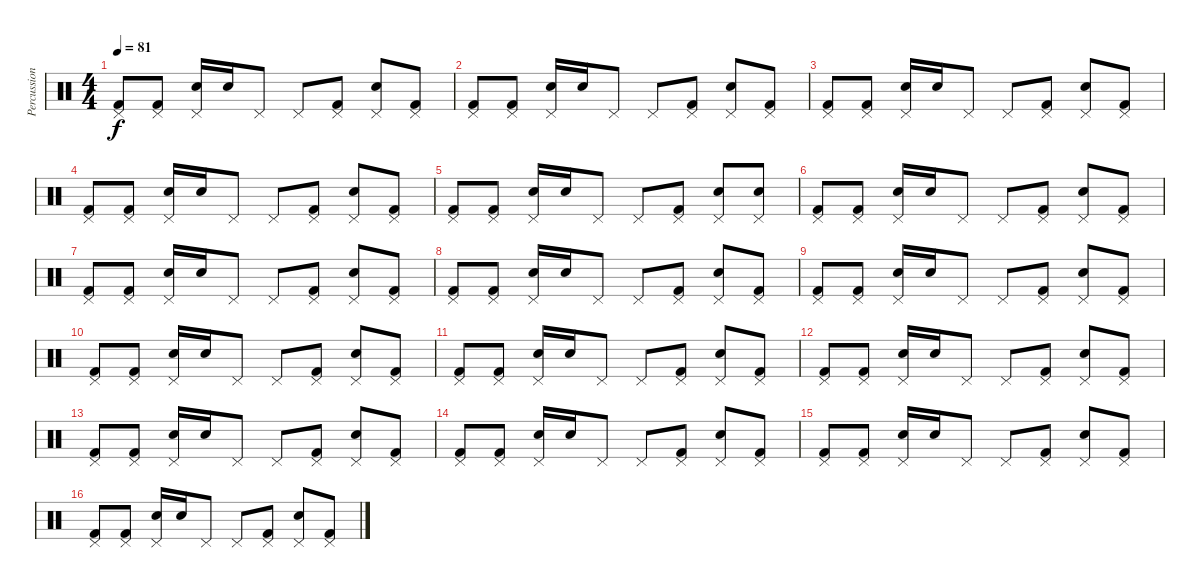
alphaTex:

\track ("Percussion" "Percussion") {instrument percussion}
\staff {score}
\articulation defaults
\ts (4 4)
\tempo 81
\clef neutral
\ks c
("Pedal Hi-Hat (hit)" "Kick (hit) 2").8{dy f} ("Pedal Hi-Hat (hit)" "Kick (hit) 2").8 ("Pedal Hi-Hat (hit)" "Snare (hit) 2").16 "Snare (hit) 2".16 "Pedal Hi-Hat (hit)".8 "Pedal Hi-Hat (hit)".8 ("Pedal Hi-Hat (hit)" "Kick (hit) 2").8 ("Pedal Hi-Hat (hit)" "Snare (hit) 2").8 ("Pedal Hi-Hat (hit)" "Kick (hit) 2").8 |
("Pedal Hi-Hat (hit)" "Kick (hit) 2").8 ("Pedal Hi-Hat (hit)" "Kick (hit) 2").8 ("Pedal Hi-Hat (hit)" "Snare (hit) 2").16 "Snare (hit) 2".16 "Pedal Hi-Hat (hit)".8 "Pedal Hi-Hat (hit)".8 ("Pedal Hi-Hat (hit)" "Kick (hit) 2").8 ("Pedal Hi-Hat (hit)" "Snare (hit) 2").8 ("Pedal Hi-Hat (hit)" "Kick (hit) 2").8 |
("Pedal Hi-Hat (hit)" "Kick (hit) 2").8 ("Pedal Hi-Hat (hit)" "Kick (hit) 2").8 ("Pedal Hi-Hat (hit)" "Snare (hit) 2").16 "Snare (hit) 2".16 "Pedal Hi-Hat (hit)".8 "Pedal Hi-Hat (hit)".8 ("Pedal Hi-Hat (hit)" "Kick (hit) 2").8 ("Pedal Hi-Hat (hit)" "Snare (hit) 2").8 ("Pedal Hi-Hat (hit)" "Kick (hit) 2").8 |
("Pedal Hi-Hat (hit)" "Kick (hit) 2").8 ("Pedal Hi-Hat (hit)" "Kick (hit) 2").8 ("Pedal Hi-Hat (hit)" "Snare (hit) 2").16 "Snare (hit) 2".16 "Pedal Hi-Hat (hit)".8 "Pedal Hi-Hat (hit)".8 ("Pedal Hi-Hat (hit)" "Kick (hit) 2").8 ("Pedal Hi-Hat (hit)" "Snare (hit) 2").8 ("Pedal Hi-Hat (hit)" "Kick (hit) 2").8 |
("Pedal Hi-Hat (hit)" "Kick (hit) 2").8 ("Pedal Hi-Hat (hit)" "Kick (hit) 2").8 ("Pedal Hi-Hat (hit)" "Snare (hit) 2").16 "Snare (hit) 2".16 "Pedal Hi-Hat (hit)".8 "Pedal Hi-Hat (hit)".8 ("Pedal Hi-Hat (hit)" "Kick (hit) 2").8 ("Pedal Hi-Hat (hit)" "Snare (hit) 2").8 ("Pedal Hi-Hat (hit)" "Snare (hit)").8 |
("Pedal Hi-Hat (hit)" "Kick (hit) 2").8 ("Pedal Hi-Hat (hit)" "Kick (hit) 2").8 ("Pedal Hi-Hat (hit)" "Snare (hit) 2").16 "Snare (hit) 2".16 "Pedal Hi-Hat (hit)".8 "Pedal Hi-Hat (hit)".8 ("Pedal Hi-Hat (hit)" "Kick (hit) 2").8 ("Pedal Hi-Hat (hit)" "Snare (hit) 2").8 ("Pedal Hi-Hat (hit)" "Kick (hit) 2").8 |
("Pedal Hi-Hat (hit)" "Kick (hit) 2").8 ("Pedal Hi-Hat (hit)" "Kick (hit) 2").8 ("Pedal Hi-Hat (hit)" "Snare (hit) 2").16 "Snare (hit) 2".16 "Pedal Hi-Hat (hit)".8 "Pedal Hi-Hat (hit)".8 ("Pedal Hi-Hat (hit)" "Kick (hit) 2").8 ("Pedal Hi-Hat (hit)" "Snare (hit) 2").8 ("Pedal Hi-Hat (hit)" "Kick (hit) 2").8 |
("Pedal Hi-Hat (hit)" "Kick (hit) 2").8 ("Pedal Hi-Hat (hit)" "Kick (hit) 2").8 ("Pedal Hi-Hat (hit)" "Snare (hit) 2").16 "Snare (hit) 2".16 "Pedal Hi-Hat (hit)".8 "Pedal Hi-Hat (hit)".8 ("Pedal Hi-Hat (hit)" "Kick (hit) 2").8 ("Pedal Hi-Hat (hit)" "Snare (hit) 2").8 ("Pedal Hi-Hat (hit)" "Kick (hit) 2").8 |
("Pedal Hi-Hat (hit)" "Kick (hit) 2").8 ("Pedal Hi-Hat (hit)" "Kick (hit) 2").8 ("Pedal Hi-Hat (hit)" "Snare (hit) 2").16 "Snare (hit) 2".16 "Pedal Hi-Hat (hit)".8 "Pedal Hi-Hat (hit)".8 ("Pedal Hi-Hat (hit)" "Kick (hit) 2").8 ("Pedal Hi-Hat (hit)" "Snare (hit) 2").8 ("Pedal Hi-Hat (hit)" "Kick (hit) 2").8 |
("Pedal Hi-Hat (hit)" "Kick (hit) 2").8 ("Pedal Hi-Hat (hit)" "Kick (hit) 2").8 ("Pedal Hi-Hat (hit)" "Snare (hit) 2").16 "Snare (hit) 2".16 "Pedal Hi-Hat (hit)".8 "Pedal Hi-Hat (hit)".8 ("Pedal Hi-Hat (hit)" "Kick (hit) 2").8 ("Pedal Hi-Hat (hit)" "Snare (hit) 2").8 ("Pedal Hi-Hat (hit)" "Kick (hit) 2").8 |
("Pedal Hi-Hat (hit)" "Kick (hit) 2").8 ("Pedal Hi-Hat (hit)" "Kick (hit) 2").8 ("Pedal Hi-Hat (hit)" "Snare (hit) 2").16 "Snare (hit) 2".16 "Pedal Hi-Hat (hit)".8 "Pedal Hi-Hat (hit)".8 ("Pedal Hi-Hat (hit)" "Kick (hit) 2").8 ("Pedal Hi-Hat (hit)" "Snare (hit) 2").8 ("Pedal Hi-Hat (hit)" "Kick (hit) 2").8 |
("Pedal Hi-Hat (hit)" "Kick (hit) 2").8 ("Pedal Hi-Hat (hit)" "Kick (hit) 2").8 ("Pedal Hi-Hat (hit)" "Snare (hit) 2").16 "Snare (hit) 2".16 "Pedal Hi-Hat (hit)".8 "Pedal Hi-Hat (hit)".8 ("Pedal Hi-Hat (hit)" "Kick (hit) 2").8 ("Pedal Hi-Hat (hit)" "Snare (hit) 2").8 ("Pedal Hi-Hat (hit)" "Kick (hit) 2").8 |
("Pedal Hi-Hat (hit)" "Kick (hit) 2").8 ("Pedal Hi-Hat (hit)" "Kick (hit) 2").8 ("Pedal Hi-Hat (hit)" "Snare (hit) 2").16 "Snare (hit) 2".16 "Pedal Hi-Hat (hit)".8 "Pedal Hi-Hat (hit)".8 ("Pedal Hi-Hat (hit)" "Kick (hit) 2").8 ("Pedal Hi-Hat (hit)" "Snare (hit) 2").8 ("Pedal Hi-Hat (hit)" "Kick (hit) 2").8 |
("Pedal Hi-Hat (hit)" "Kick (hit) 2").8 ("Pedal Hi-Hat (hit)" "Kick (hit) 2").8 ("Pedal Hi-Hat (hit)" "Snare (hit) 2").16 "Snare (hit) 2".16 "Pedal Hi-Hat (hit)".8 "Pedal Hi-Hat (hit)".8 ("Pedal Hi-Hat (hit)" "Kick (hit) 2").8 ("Pedal Hi-Hat (hit)" "Snare (hit) 2").8 ("Pedal Hi-Hat (hit)" "Kick (hit) 2").8 |
("Pedal Hi-Hat (hit)" "Kick (hit) 2").8 ("Pedal Hi-Hat (hit)" "Kick (hit) 2").8 ("Pedal Hi-Hat (hit)" "Snare (hit) 2").16 "Snare (hit) 2".16 "Pedal Hi-Hat (hit)".8 "Pedal Hi-Hat (hit)".8 ("Pedal Hi-Hat (hit)" "Kick (hit) 2").8 ("Pedal Hi-Hat (hit)" "Snare (hit) 2").8 ("Pedal Hi-Hat (hit)" "Kick (hit) 2").8 |
("Pedal Hi-Hat (hit)" "Kick (hit) 2").8 ("Pedal Hi-Hat (hit)" "Kick (hit) 2").8 ("Pedal Hi-Hat (hit)" "Snare (hit) 2").16 "Snare (hit) 2".16 "Pedal Hi-Hat (hit)".8 "Pedal Hi-Hat (hit)".8 ("Pedal Hi-Hat (hit)" "Kick (hit) 2").8 ("Pedal Hi-Hat (hit)" "Snare (hit) 2").8 ("Pedal Hi-Hat (hit)" "Kick (hit) 2").8
